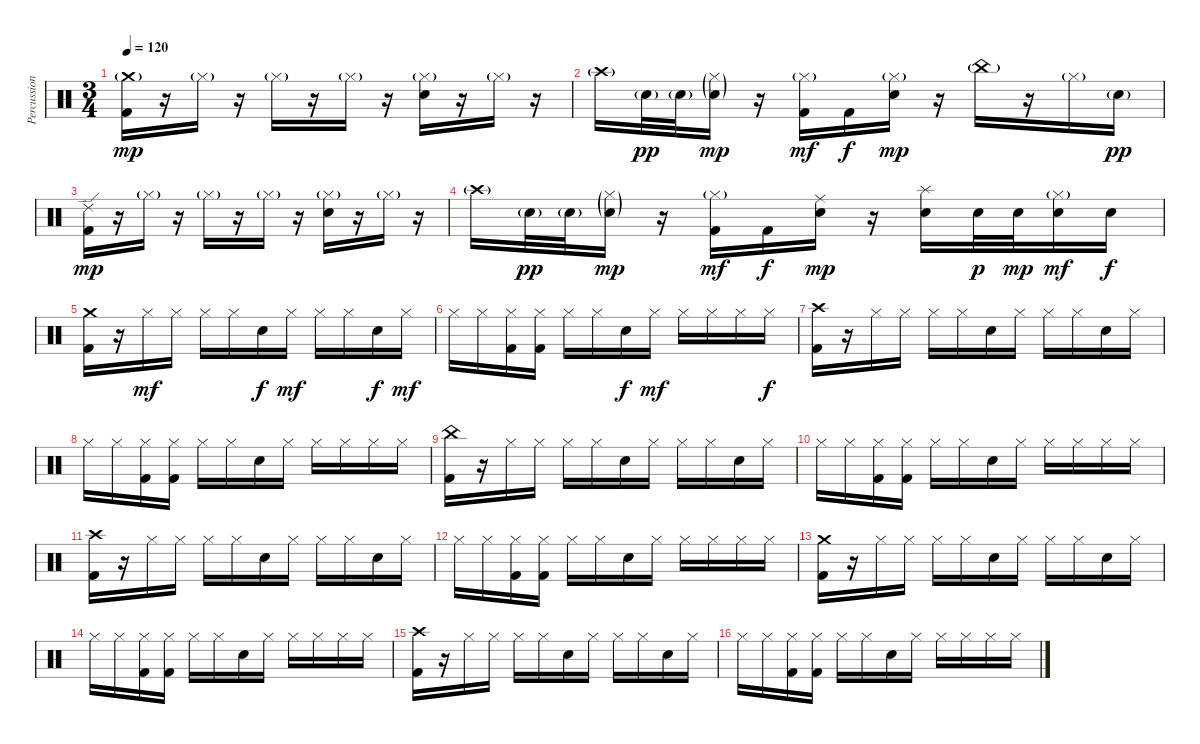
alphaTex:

\track ("Percussion" "Percussion") {instrument percussion bank 129}
\staff {score}
\articulation defaults
\ts (3 4)
\tempo 120
\clef neutral
\ks c
("Crash medium (hit)"{g} "Kick (hit) 2").16{dy mp} r.16 "Hi-Hat (closed)"{g}.16 r.16 "Hi-Hat (closed)"{g}.16 r.16 "Hi-Hat (closed)"{g}.16 r.16 ("Hi-Hat (closed)"{g} "Electric Snare (hit)").16 r.16 "Hi-Hat (closed)"{g}.16 r.16 |
"Crash high (hit)"{g}.16 "Electric Snare (hit)"{g}.32{dy pp} "Electric Snare (hit)"{g}.32 ("Hi-Hat (closed)"{g} "Electric Snare (hit)"{g}).16{dy mp} r.16 ("Hi-Hat (closed)"{g} "Kick (hit) 2").16{dy mf} "Kick (hit) 2".16{dy f} ("Hi-Hat (closed)"{g} "Electric Snare (hit)").16{dy mp} r.16 "China (hit)"{g}.16 r.16 "Hi-Hat (closed)"{g}.16 "Electric Snare (hit)"{g}.16{dy pp} |
("Ride (edge) 2" "Kick (hit) 2").16{dy mp} r.16 "Hi-Hat (closed)"{g}.16 r.16 "Hi-Hat (closed)"{g}.16 r.16 "Hi-Hat (closed)"{g}.16 r.16 ("Hi-Hat (closed)"{g} "Electric Snare (hit)").16 r.16 "Hi-Hat (closed)"{g}.16 r.16 |
"Crash high (hit)"{g}.16 "Electric Snare (hit)"{g}.32{dy pp} "Electric Snare (hit)"{g}.32 ("Hi-Hat (closed)"{g} "Electric Snare (hit)"{g}).16{dy mp} r.16 ("Hi-Hat (closed)"{g} "Kick (hit) 2").16{dy mf} "Kick (hit) 2".16{dy f} ("Ride (middle)" "Electric Snare (hit)").16{dy mp} r.16 ("Splash (hit)" "Electric Snare (hit)").16 "Electric Snare (hit)".32{dy p} "Electric Snare (hit)".32{dy mp} ("Hi-Hat (closed)"{g} "Electric Snare (hit)").16{dy mf} "Electric Snare (hit)".16{dy f} |
("Crash medium (hit)" "Kick (hit) 2").16 r.16 "Hi-Hat (closed)".16{dy mf} "Hi-Hat (closed)".16 "Hi-Hat (closed)".16 "Hi-Hat (closed)".16 "Electric Snare (hit)".16{dy f} "Hi-Hat (closed)".16{dy mf} "Hi-Hat (closed)".16 "Hi-Hat (closed)".16 "Electric Snare (hit)".16{dy f} "Hi-Hat (closed)".16{dy mf} |
"Hi-Hat (closed)".16 "Hi-Hat (closed)".16 ("Hi-Hat (closed)" "Kick (hit) 2").16 ("Hi-Hat (closed)" "Kick (hit) 2").16 "Hi-Hat (closed)".16 "Hi-Hat (closed)".16 "Electric Snare (hit)".16{dy f} "Hi-Hat (closed)".16{dy mf} "Hi-Hat (closed)".16 "Hi-Hat (closed)".16 "Hi-Hat (closed)".16 "Hi-Hat (closed)".16{dy f} |
("Crash high (hit)" "Kick (hit) 2").16 r.16 "Hi-Hat (closed)".16 "Hi-Hat (closed)".16 "Hi-Hat (closed)".16 "Hi-Hat (closed)".16 "Electric Snare (hit)".16 "Hi-Hat (closed)".16 "Hi-Hat (closed)".16 "Hi-Hat (closed)".16 "Electric Snare (hit)".16 "Hi-Hat (closed)".16 |
"Hi-Hat (closed)".16 "Hi-Hat (closed)".16 ("Hi-Hat (closed)" "Kick (hit) 2").16 ("Hi-Hat (closed)" "Kick (hit) 2").16 "Hi-Hat (closed)".16 "Hi-Hat (closed)".16 "Electric Snare (hit)".16 "Hi-Hat (closed)".16 "Hi-Hat (closed)".16 "Hi-Hat (closed)".16 "Hi-Hat (closed)".16 "Hi-Hat (closed)".16 |
("China (hit)" "Kick (hit) 2").16 r.16 "Hi-Hat (closed)".16 "Hi-Hat (closed)".16 "Hi-Hat (closed)".16 "Hi-Hat (closed)".16 "Electric Snare (hit)".16 "Hi-Hat (closed)".16 "Hi-Hat (closed)".16 "Hi-Hat (closed)".16 "Electric Snare (hit)".16 "Hi-Hat (closed)".16 |
"Hi-Hat (closed)".16 "Hi-Hat (closed)".16 ("Hi-Hat (closed)" "Kick (hit) 2").16 ("Hi-Hat (closed)" "Kick (hit) 2").16 "Hi-Hat (closed)".16 "Hi-Hat (closed)".16 "Electric Snare (hit)".16 "Hi-Hat (closed)".16 "Hi-Hat (closed)".16 "Hi-Hat (closed)".16 "Hi-Hat (closed)".16 "Hi-Hat (closed)".16 |
("Crash high (hit)" "Kick (hit) 2").16 r.16 "Hi-Hat (closed)".16 "Hi-Hat (closed)".16 "Hi-Hat (closed)".16 "Hi-Hat (closed)".16 "Electric Snare (hit)".16 "Hi-Hat (closed)".16 "Hi-Hat (closed)".16 "Hi-Hat (closed)".16 "Electric Snare (hit)".16 "Hi-Hat (closed)".16 |
"Hi-Hat (closed)".16 "Hi-Hat (closed)".16 ("Hi-Hat (closed)" "Kick (hit) 2").16 ("Hi-Hat (closed)" "Kick (hit) 2").16 "Hi-Hat (closed)".16 "Hi-Hat (closed)".16 "Electric Snare (hit)".16 "Hi-Hat (closed)".16 "Hi-Hat (closed)".16 "Hi-Hat (closed)".16 "Hi-Hat (closed)".16 "Hi-Hat (closed)".16 |
("Crash medium (hit)" "Kick (hit) 2").16 r.16 "Hi-Hat (closed)".16 "Hi-Hat (closed)".16 "Hi-Hat (closed)".16 "Hi-Hat (closed)".16 "Electric Snare (hit)".16 "Hi-Hat (closed)".16 "Hi-Hat (closed)".16 "Hi-Hat (closed)".16 "Electric Snare (hit)".16 "Hi-Hat (closed)".16 |
"Hi-Hat (closed)".16 "Hi-Hat (closed)".16 ("Hi-Hat (closed)" "Kick (hit) 2").16 ("Hi-Hat (closed)" "Kick (hit) 2").16 "Hi-Hat (closed)".16 "Hi-Hat (closed)".16 "Electric Snare (hit)".16 "Hi-Hat (closed)".16 "Hi-Hat (closed)".16 "Hi-Hat (closed)".16 "Hi-Hat (closed)".16 "Hi-Hat (closed)".16 |
("Crash high (hit)" "Kick (hit) 2").16 r.16 "Hi-Hat (closed)".16 "Hi-Hat (closed)".16 "Hi-Hat (closed)".16 "Hi-Hat (closed)".16 "Electric Snare (hit)".16 "Hi-Hat (closed)".16 "Hi-Hat (closed)".16 "Hi-Hat (closed)".16 "Electric Snare (hit)".16 "Hi-Hat (closed)".16 |
"Hi-Hat (closed)".16 "Hi-Hat (closed)".16 ("Hi-Hat (closed)" "Kick (hit) 2").16 ("Hi-Hat (closed)" "Kick (hit) 2").16 "Hi-Hat (closed)".16 "Hi-Hat (closed)".16 "Electric Snare (hit)".16 "Hi-Hat (closed)".16 "Hi-Hat (closed)".16 "Hi-Hat (closed)".16 "Hi-Hat (closed)".16 "Hi-Hat (closed)".16
